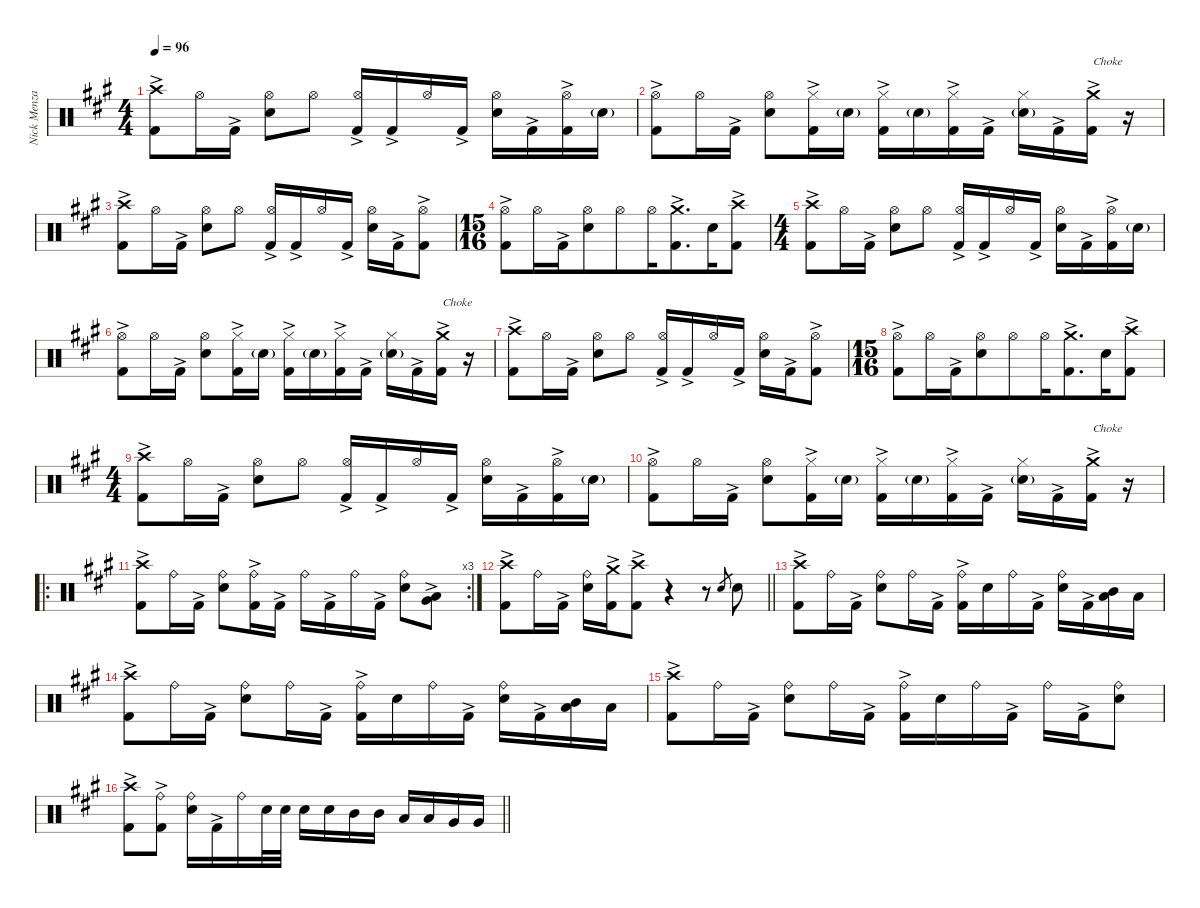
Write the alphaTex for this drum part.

\defaultSystemsLayout 4
\hideDynamics
\bracketExtendMode nobrackets
\firstSystemTrackNameMode fullname
\otherSystemsTrackNameOrientation horizontal
\track ("Nick Menza" "drm.") {instrument percussion}
\staff {score}
\articulation defaults
\ts (4 4)
\beaming (8 2 2 2 2)
\tempo 96
\clef neutral
\ks f#minor
("Crash high (hit)"{acc forcenatural} "Kick (hit) 2"{ac acc forcenatural}).8{dy f beam Down} "Hi-Hat (open)"{acc forcenatural}.16{beam Down} "Kick (hit) 2"{ac acc forcenatural}.16{dy ff beam Down} ("Hi-Hat (open)"{acc forcenatural} "Snare (hit) 2"{acc forcenatural}).8{dy f beam Down} "Hi-Hat (open)"{acc forcenatural}.8{beam Down} ("Hi-Hat (open)"{acc forcenatural} "Kick (hit) 2"{ac acc forcenatural}).16{beam Up} "Kick (hit) 2"{ac acc forcenatural}.16{dy ff beam Up} "Hi-Hat (open)"{acc forcenatural}.16{dy f beam Up} "Kick (hit) 2"{ac acc forcenatural}.16{dy ff beam Up} ("Hi-Hat (open)"{acc forcenatural} "Snare (hit) 2"{acc forcenatural}).16{dy f beam Down} "Kick (hit) 2"{ac acc forcenatural}.16{dy ff beam Down} ("Hi-Hat (open)"{acc forcenatural} "Kick (hit) 2"{ac acc forcenatural}).16{dy f beam Down} "Snare (hit) 2"{g acc forcenatural}.16{dy mf beam Down} |
("Hi-Hat (open)"{acc forcenatural} "Kick (hit) 2"{ac acc forcenatural}).8{dy f beam Down} "Hi-Hat (open)"{acc forcenatural}.16{beam Down} "Kick (hit) 2"{ac acc forcenatural}.16{dy ff beam Down} ("Hi-Hat (open)"{acc forcenatural} "Snare (hit) 2"{acc forcenatural}).8{dy f beam Down} ("Hi-Hat (closed)"{acc forcenatural} "Kick (hit) 2"{ac acc forcenatural}).16{beam Down} "Snare (hit) 2"{g acc forcenatural}.16{dy mf beam Down} ("Hi-Hat (closed)"{acc forcenatural} "Kick (hit) 2"{ac acc forcenatural}).16{dy f beam Down} "Snare (hit) 2"{g acc forcenatural}.16{dy mf beam Down} ("Hi-Hat (closed)"{acc forcenatural} "Kick (hit) 2"{ac acc forcenatural}).16{dy f beam Down} "Kick (hit) 2"{ac acc forcenatural}.16{dy ff beam Down} ("Hi-Hat (closed)"{acc forcenatural} "Snare (hit) 2"{g acc forcenatural}).16{dy f beam Down} "Kick (hit) 2"{ac acc forcenatural}.16{dy ff beam Down} ("Crash medium (hit)"{acc forcenatural} "Kick (hit) 2"{ac acc forcenatural}).16{txt "Choke" dy f beam Down} r.16{beam Down} |
("Crash high (hit)"{acc forcenatural} "Kick (hit) 2"{ac acc forcenatural}).8{beam Down} "Hi-Hat (open)"{acc forcenatural}.16{beam Down} "Kick (hit) 2"{ac acc forcenatural}.16{dy ff beam Down} ("Hi-Hat (open)"{acc forcenatural} "Snare (hit) 2"{acc forcenatural}).8{dy f beam Down} "Hi-Hat (open)"{acc forcenatural}.8{beam Down} ("Hi-Hat (open)"{acc forcenatural} "Kick (hit) 2"{ac acc forcenatural}).16{beam Up} "Kick (hit) 2"{ac acc forcenatural}.16{dy ff beam Up} "Hi-Hat (open)"{acc forcenatural}.16{dy f beam Up} "Kick (hit) 2"{ac acc forcenatural}.16{dy ff beam Up} ("Hi-Hat (open)"{acc forcenatural} "Snare (hit) 2"{acc forcenatural}).16{dy f beam Down} "Kick (hit) 2"{ac acc forcenatural}.16{dy ff beam Down} ("Hi-Hat (open)"{acc forcenatural} "Kick (hit) 2"{ac acc forcenatural}).8{dy f beam Down} |
\ts (15 16)
\beaming (8 7)
("Hi-Hat (open)"{acc forcenatural} "Kick (hit) 2"{ac acc forcenatural}).8{beam Down} "Hi-Hat (open)"{acc forcenatural}.16{beam Down} "Kick (hit) 2"{ac acc forcenatural}.16{dy ff beam Down} ("Hi-Hat (open)"{acc forcenatural} "Snare (hit) 2"{acc forcenatural}).8{dy f beam Down} "Hi-Hat (open)"{acc forcenatural}.8{beam Down} "Hi-Hat (open)"{acc forcenatural}.16{beam Down} ("Crash medium (hit)"{acc forcenatural} "Kick (hit) 2"{ac acc forcenatural}).8{d beam Down} "Snare (hit) 2"{acc forcenatural}.16{beam Down} ("Crash high (hit)"{acc forcenatural} "Kick (hit) 2"{ac acc forcenatural}).8{beam Down} |
\ts (4 4)
\beaming (8 2 2 2 2)
("Crash high (hit)"{acc forcenatural} "Kick (hit) 2"{ac acc forcenatural}).8{beam Down} "Hi-Hat (open)"{acc forcenatural}.16{beam Down} "Kick (hit) 2"{ac acc forcenatural}.16{dy ff beam Down} ("Hi-Hat (open)"{acc forcenatural} "Snare (hit) 2"{acc forcenatural}).8{dy f beam Down} "Hi-Hat (open)"{acc forcenatural}.8{beam Down} ("Hi-Hat (open)"{acc forcenatural} "Kick (hit) 2"{ac acc forcenatural}).16{beam Up} "Kick (hit) 2"{ac acc forcenatural}.16{dy ff beam Up} "Hi-Hat (open)"{acc forcenatural}.16{dy f beam Up} "Kick (hit) 2"{ac acc forcenatural}.16{dy ff beam Up} ("Hi-Hat (open)"{acc forcenatural} "Snare (hit) 2"{acc forcenatural}).16{dy f beam Down} "Kick (hit) 2"{ac acc forcenatural}.16{dy ff beam Down} ("Hi-Hat (open)"{acc forcenatural} "Kick (hit) 2"{ac acc forcenatural}).16{dy f beam Down} "Snare (hit) 2"{g acc forcenatural}.16{dy mf beam Down} |
("Hi-Hat (open)"{acc forcenatural} "Kick (hit) 2"{ac acc forcenatural}).8{dy f beam Down} "Hi-Hat (open)"{acc forcenatural}.16{beam Down} "Kick (hit) 2"{ac acc forcenatural}.16{dy ff beam Down} ("Hi-Hat (open)"{acc forcenatural} "Snare (hit) 2"{acc forcenatural}).8{dy f beam Down} ("Hi-Hat (closed)"{acc forcenatural} "Kick (hit) 2"{ac acc forcenatural}).16{beam Down} "Snare (hit) 2"{g acc forcenatural}.16{dy mf beam Down} ("Hi-Hat (closed)"{acc forcenatural} "Kick (hit) 2"{ac acc forcenatural}).16{dy f beam Down} "Snare (hit) 2"{g acc forcenatural}.16{dy mf beam Down} ("Hi-Hat (closed)"{acc forcenatural} "Kick (hit) 2"{ac acc forcenatural}).16{dy f beam Down} "Kick (hit) 2"{ac acc forcenatural}.16{dy ff beam Down} ("Hi-Hat (closed)"{acc forcenatural} "Snare (hit) 2"{g acc forcenatural}).16{dy f beam Down} "Kick (hit) 2"{ac acc forcenatural}.16{dy ff beam Down} ("Crash medium (hit)"{acc forcenatural} "Kick (hit) 2"{ac acc forcenatural}).16{txt "Choke" dy f beam Down} r.16{beam Down} |
("Crash high (hit)"{acc forcenatural} "Kick (hit) 2"{ac acc forcenatural}).8{beam Down} "Hi-Hat (open)"{acc forcenatural}.16{beam Down} "Kick (hit) 2"{ac acc forcenatural}.16{dy ff beam Down} ("Hi-Hat (open)"{acc forcenatural} "Snare (hit) 2"{acc forcenatural}).8{dy f beam Down} "Hi-Hat (open)"{acc forcenatural}.8{beam Down} ("Hi-Hat (open)"{acc forcenatural} "Kick (hit) 2"{ac acc forcenatural}).16{beam Up} "Kick (hit) 2"{ac acc forcenatural}.16{dy ff beam Up} "Hi-Hat (open)"{acc forcenatural}.16{dy f beam Up} "Kick (hit) 2"{ac acc forcenatural}.16{dy ff beam Up} ("Hi-Hat (open)"{acc forcenatural} "Snare (hit) 2"{acc forcenatural}).16{dy f beam Down} "Kick (hit) 2"{ac acc forcenatural}.16{dy ff beam Down} ("Hi-Hat (open)"{acc forcenatural} "Kick (hit) 2"{ac acc forcenatural}).8{dy f beam Down} |
\ts (15 16)
\beaming (8 7)
("Hi-Hat (open)"{acc forcenatural} "Kick (hit) 2"{ac acc forcenatural}).8{beam Down} "Hi-Hat (open)"{acc forcenatural}.16{beam Down} "Kick (hit) 2"{ac acc forcenatural}.16{dy ff beam Down} ("Hi-Hat (open)"{acc forcenatural} "Snare (hit) 2"{acc forcenatural}).8{dy f beam Down} "Hi-Hat (open)"{acc forcenatural}.8{beam Down} "Hi-Hat (open)"{acc forcenatural}.16{beam Down} ("Crash medium (hit)"{acc forcenatural} "Kick (hit) 2"{ac acc forcenatural}).8{d beam Down} "Snare (hit) 2"{acc forcenatural}.16{beam Down} ("Crash high (hit)"{acc forcenatural} "Kick (hit) 2"{ac acc forcenatural}).8{beam Down} |
\ts (4 4)
\beaming (8 2 2 2 2)
("Crash high (hit)"{acc forcenatural} "Kick (hit) 2"{ac acc forcenatural}).8{beam Down} "Hi-Hat (open)"{acc forcenatural}.16{beam Down} "Kick (hit) 2"{ac acc forcenatural}.16{dy ff beam Down} ("Hi-Hat (open)"{acc forcenatural} "Snare (hit) 2"{acc forcenatural}).8{dy f beam Down} "Hi-Hat (open)"{acc forcenatural}.8{beam Down} ("Hi-Hat (open)"{acc forcenatural} "Kick (hit) 2"{ac acc forcenatural}).16{beam Up} "Kick (hit) 2"{ac acc forcenatural}.16{dy ff beam Up} "Hi-Hat (open)"{acc forcenatural}.16{dy f beam Up} "Kick (hit) 2"{ac acc forcenatural}.16{dy ff beam Up} ("Hi-Hat (open)"{acc forcenatural} "Snare (hit) 2"{acc forcenatural}).16{dy f beam Down} "Kick (hit) 2"{ac acc forcenatural}.16{dy ff beam Down} ("Hi-Hat (open)"{acc forcenatural} "Kick (hit) 2"{ac acc forcenatural}).16{dy f beam Down} "Snare (hit) 2"{g acc forcenatural}.16{dy mf beam Down} |
("Hi-Hat (open)"{acc forcenatural} "Kick (hit) 2"{ac acc forcenatural}).8{dy f beam Down} "Hi-Hat (open)"{acc forcenatural}.16{beam Down} "Kick (hit) 2"{ac acc forcenatural}.16{dy ff beam Down} ("Hi-Hat (open)"{acc forcenatural} "Snare (hit) 2"{acc forcenatural}).8{dy f beam Down} ("Hi-Hat (closed)"{acc forcenatural} "Kick (hit) 2"{ac acc forcenatural}).16{beam Down} "Snare (hit) 2"{g acc forcenatural}.16{dy mf beam Down} ("Hi-Hat (closed)"{acc forcenatural} "Kick (hit) 2"{ac acc forcenatural}).16{dy f beam Down} "Snare (hit) 2"{g acc forcenatural}.16{dy mf beam Down} ("Hi-Hat (closed)"{acc forcenatural} "Kick (hit) 2"{ac acc forcenatural}).16{dy f beam Down} "Kick (hit) 2"{ac acc forcenatural}.16{dy ff beam Down} ("Hi-Hat (closed)"{acc forcenatural} "Snare (hit) 2"{g acc forcenatural}).16{dy f beam Down} "Kick (hit) 2"{ac acc forcenatural}.16{dy ff beam Down} ("Crash medium (hit)"{acc forcenatural} "Kick (hit) 2"{ac acc forcenatural}).16{txt "Choke" dy f beam Down} r.16{beam Down} |
\ro
\rc 3
("Crash high (hit)"{acc forcenatural} "Kick (hit) 2"{ac acc forcenatural}).8{beam Down} "Ride (bell)"{acc forcenatural}.16{beam Down} "Kick (hit) 2"{ac acc forcenatural}.16{dy ff beam Down} ("Ride (bell)"{acc forcenatural} "Snare (hit) 2"{acc forcenatural}).8{dy f beam Down} ("Ride (bell)"{acc forcenatural} "Kick (hit) 2"{ac acc forcenatural}).16{beam Down} "Kick (hit) 2"{ac acc forcenatural}.16{dy ff beam Down} "Ride (bell)"{acc forcenatural}.16{dy f beam Down} "Kick (hit) 2"{ac acc forcenatural}.16{dy ff beam Down} "Ride (bell)"{acc forcenatural}.16{dy f beam Down} "Kick (hit) 2"{ac acc forcenatural}.16{dy ff beam Down} ("Ride (bell)"{acc forcenatural} "Snare (hit) 2"{acc forcenatural}).8{dy f beam Down} ("Low Tom (hit)"{ac acc forcenatural} "Very Low Tom (hit)"{ac acc forcenatural}).8{dy ff beam Down} |
\barLineRight lightlight
("Crash high (hit)"{acc forcenatural} "Kick (hit) 2"{ac acc forcenatural}).8{dy f beam Down} "Ride (bell)"{acc forcenatural}.16{beam Down} "Kick (hit) 2"{ac acc forcenatural}.16{dy ff beam Down} ("Ride (bell)"{acc forcenatural} "Snare (hit) 2"{acc forcenatural}).16{dy f beam Down} ("Crash medium (hit)"{acc forcenatural} "Kick (hit) 2"{ac acc forcenatural}).16{beam Down} ("Crash high (hit)"{acc forcenatural} "Kick (hit) 2"{ac acc forcenatural}).8{beam Down} r.4{beam Down} r.8{beam Down} "Snare (hit) 2"{acc forcenatural}.8{gr dy mf beam Up} "Snare (hit) 2"{acc forcenatural}.8{dy f beam Down} |
("Crash high (hit)"{acc forcenatural} "Kick (hit) 2"{ac acc forcenatural}).8{beam Down} "Ride (bell)"{acc forcenatural}.16{beam Down} "Kick (hit) 2"{ac acc forcenatural}.16{dy ff beam Down} ("Ride (bell)"{acc forcenatural} "Snare (hit) 2"{acc forcenatural}).8{dy f beam Down} "Ride (bell)"{acc forcenatural}.16{beam Down} "Kick (hit) 2"{ac acc forcenatural}.16{dy ff beam Down} ("Ride (bell)"{acc forcenatural} "Kick (hit) 2"{ac acc forcenatural}).16{dy f beam Down} "Snare (hit) 2"{acc forcenatural}.16{beam Down} "Ride (bell)"{acc forcenatural}.16{beam Down} "Kick (hit) 2"{ac acc forcenatural}.16{dy ff beam Down} ("Ride (bell)"{acc forcenatural} "Snare (hit) 2"{acc forcenatural}).16{dy f beam Down} "Kick (hit) 2"{ac acc forcenatural}.16{dy ff beam Down} ("Mid Tom (hit)"{acc forcenatural} "Low Tom (hit)"{acc forcenatural}).16{dy f beam Down} "Low Tom (hit)"{acc forcenatural}.16{beam Down} |
("Crash high (hit)"{acc forcenatural} "Kick (hit) 2"{ac acc forcenatural}).8{beam Down} "Ride (bell)"{acc forcenatural}.16{beam Down} "Kick (hit) 2"{ac acc forcenatural}.16{dy ff beam Down} ("Ride (bell)"{acc forcenatural} "Snare (hit) 2"{acc forcenatural}).8{dy f beam Down} "Ride (bell)"{acc forcenatural}.16{beam Down} "Kick (hit) 2"{ac acc forcenatural}.16{dy ff beam Down} ("Ride (bell)"{acc forcenatural} "Kick (hit) 2"{ac acc forcenatural}).16{dy f beam Down} "Snare (hit) 2"{acc forcenatural}.16{beam Down} "Ride (bell)"{acc forcenatural}.16{beam Down} "Kick (hit) 2"{ac acc forcenatural}.16{dy ff beam Down} ("Ride (bell)"{acc forcenatural} "Snare (hit) 2"{acc forcenatural}).16{dy f beam Down} "Kick (hit) 2"{ac acc forcenatural}.16{dy ff beam Down} ("Mid Tom (hit)"{acc forcenatural} "Low Tom (hit)"{acc forcenatural}).16{dy f beam Down} "Low Tom (hit)"{acc forcenatural}.16{beam Down} |
("Crash high (hit)"{acc forcenatural} "Kick (hit) 2"{ac acc forcenatural}).8{beam Down} "Ride (bell)"{acc forcenatural}.16{beam Down} "Kick (hit) 2"{ac acc forcenatural}.16{dy ff beam Down} ("Ride (bell)"{acc forcenatural} "Snare (hit) 2"{acc forcenatural}).8{dy f beam Down} "Ride (bell)"{acc forcenatural}.16{beam Down} "Kick (hit) 2"{ac acc forcenatural}.16{dy ff beam Down} ("Ride (bell)"{acc forcenatural} "Kick (hit) 2"{ac acc forcenatural}).16{dy f beam Down} "Snare (hit) 2"{acc forcenatural}.16{beam Down} "Ride (bell)"{acc forcenatural}.16{beam Down} "Kick (hit) 2"{ac acc forcenatural}.16{dy ff beam Down} "Ride (bell)"{acc forcenatural}.16{dy f beam Down} "Kick (hit) 2"{ac acc forcenatural}.16{dy ff beam Down} ("Ride (bell)"{acc forcenatural} "Snare (hit) 2"{acc forcenatural}).8{dy f beam Down} |
\barLineRight lightlight
("Crash high (hit)"{acc forcenatural} "Kick (hit) 2"{ac acc forcenatural}).8{beam Down} ("Ride (bell)"{acc forcenatural} "Kick (hit) 2"{ac acc forcenatural}).8{beam Down} ("Ride (bell)"{acc forcenatural} "Snare (hit) 2"{acc forcenatural}).16{beam Down} "Kick (hit) 2"{ac acc forcenatural}.16{dy ff beam Down} "Ride (bell)"{acc forcenatural}.16{dy f beam Down} "Snare (hit) 2"{acc forcenatural}.32{beam Down} "Snare (hit) 2"{acc forcenatural}.32{beam Down} "Snare (hit) 2"{acc forcenatural}.16{beam Down} "Snare (hit) 2"{acc forcenatural}.16{beam Down} "Mid Tom (hit)"{acc forcenatural}.16{beam Down} "Mid Tom (hit)"{acc forcenatural}.16{beam Down} "Low Tom (hit)"{acc forcenatural}.16{beam Up} "Low Tom (hit)"{acc forcenatural}.16{beam Up} "Very Low Tom (hit)"{acc forcenatural}.16{beam Up} "Very Low Tom (hit)"{acc forcenatural}.16{beam Up}
